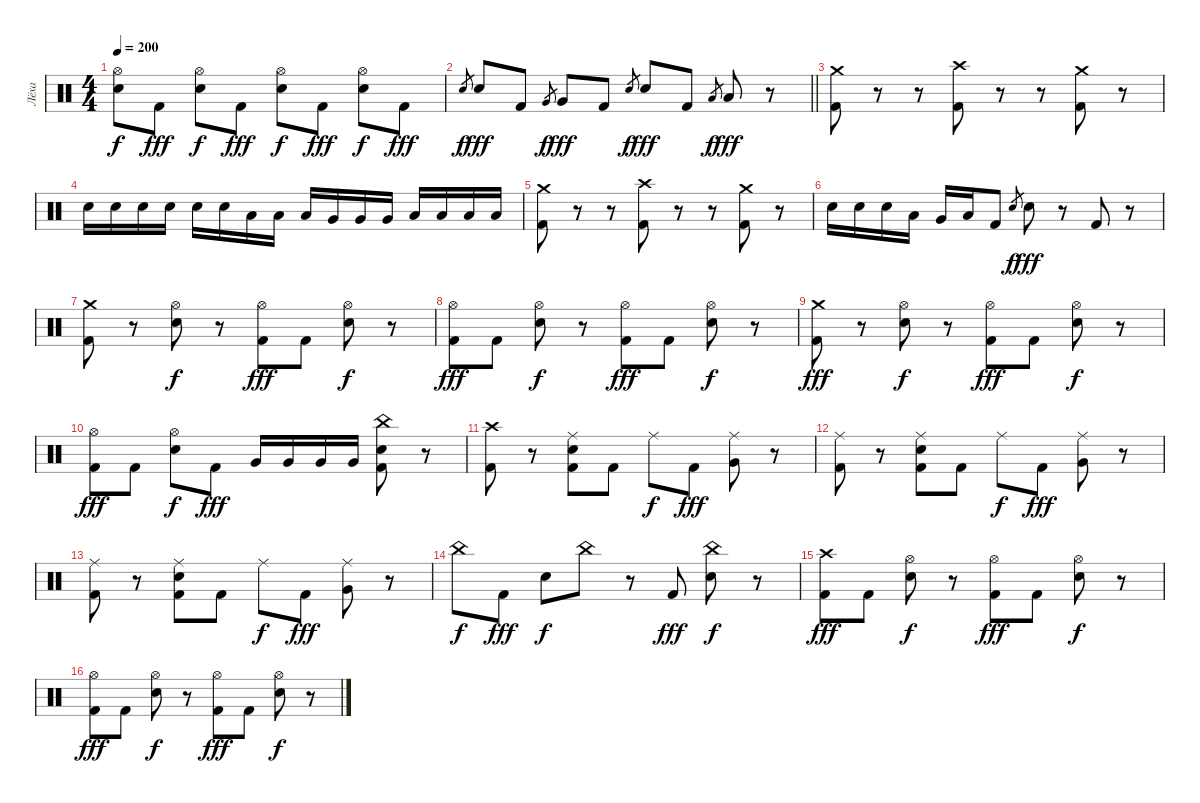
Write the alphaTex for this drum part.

\track ("Лёха" "Лёха") {instrument percussion}
\staff {score}
\articulation defaults
\ts (4 4)
\tempo 200
\clef neutral
\ks c
("Hi-Hat (open)" "Electric Snare (hit)").8{dy f} "Kick (hit) 2".8{dy fff} ("Hi-Hat (open)" "Electric Snare (hit)").8{dy f} "Kick (hit) 2".8{dy fff} ("Hi-Hat (open)" "Electric Snare (hit)").8{dy f} "Kick (hit) 2".8{dy fff} ("Hi-Hat (open)" "Electric Snare (hit)").8{dy f} "Kick (hit) 2".8{dy fff} |
\barLineRight lightlight "Electric Snare (hit)".8{gr dy f} "Electric Snare (hit)".8{dy fff} "Kick (hit) 2".8 "Very Low Tom (hit)".8{gr dy f} "Very Low Tom (hit)".8{dy fff} "Kick (hit) 2".8 "Electric Snare (hit)".8{gr dy f} "Electric Snare (hit)".8{dy fff} "Kick (hit) 2".8 "Low Floor Tom (hit)".8{gr dy f} "Low Floor Tom (hit)".8{dy fff}
r.8 |
\section ("" "")
("Crash medium (hit)" "Kick (hit) 2").8 r.8 r.8 ("Crash high (hit)" "Kick (hit) 2").8 r.8 r.8 ("Crash medium (hit)" "Kick (hit) 2").8 r.8 |
"Electric Snare (hit)".16 "Electric Snare (hit)".16 "Electric Snare (hit)".16 "Electric Snare (hit)".16 "Electric Snare (hit)".16 "Electric Snare (hit)".16 "Low Tom (hit)".16 "Low Tom (hit)".16 "Low Tom (hit)".16 "Very Low Tom (hit)".16 "Very Low Tom (hit)".16 "Very Low Tom (hit)".16 "Low Floor Tom (hit)".16 "Low Floor Tom (hit)".16 "Low Floor Tom (hit)".16 "Low Floor Tom (hit)".16 |
("Crash medium (hit)" "Kick (hit) 2").8 r.8 r.8 ("Crash high (hit)" "Kick (hit) 2").8 r.8 r.8 ("Crash medium (hit)" "Kick (hit) 2").8 r.8 |
"Electric Snare (hit)".16 "Electric Snare (hit)".16 "Electric Snare (hit)".16 "Low Tom (hit)".16 "Very Low Tom (hit)".16 "Low Floor Tom (hit)".16 "Kick (hit) 2".8 "Electric Snare (hit)".8{gr dy f} "Electric Snare (hit)".8{dy fff} r.8 "Kick (hit) 2".8 r.8 |
("Crash medium (hit)" "Kick (hit) 2").8 r.8 ("Hi-Hat (open)" "Electric Snare (hit)").8{dy f} r.8 ("Hi-Hat (open)" "Kick (hit) 2").8{dy fff} "Kick (hit) 2".8 ("Hi-Hat (open)" "Electric Snare (hit)").8{dy f} r.8 |
("Hi-Hat (open)" "Kick (hit) 2").8{dy fff} "Kick (hit) 2".8 ("Hi-Hat (open)" "Electric Snare (hit)").8{dy f} r.8 ("Hi-Hat (open)" "Kick (hit) 2").8{dy fff} "Kick (hit) 2".8 ("Hi-Hat (open)" "Electric Snare (hit)").8{dy f} r.8 |
("Crash medium (hit)" "Kick (hit) 2").8{dy fff} r.8 ("Hi-Hat (open)" "Electric Snare (hit)").8{dy f} r.8 ("Hi-Hat (open)" "Kick (hit) 2").8{dy fff} "Kick (hit) 2".8 ("Hi-Hat (open)" "Electric Snare (hit)").8{dy f} r.8 |
("Hi-Hat (open)" "Kick (hit) 2").8{dy fff} "Kick (hit) 2".8 ("Hi-Hat (open)" "Electric Snare (hit)").8{dy f} "Kick (hit) 2".8{dy fff} "Very Low Tom (hit)".16 "Very Low Tom (hit)".16 "Very Low Tom (hit)".16 "Very Low Tom (hit)".16 ("China (hit)" "Electric Snare (hit)" "Kick (hit) 2").8 r.8 |
("Crash high (hit)" "Kick (hit) 2").8 r.8 ("Ride (middle)" "Electric Snare (hit)" "Kick (hit) 2").8 "Kick (hit) 2".8 "Ride (middle)".8{dy f} "Kick (hit) 2".8{dy fff} ("Ride (middle)" "Very Low Tom (hit)").8 r.8 |
("Ride (middle)" "Kick (hit) 2").8 r.8 ("Ride (middle)" "Electric Snare (hit)" "Kick (hit) 2").8 "Kick (hit) 2".8 "Ride (middle)".8{dy f} "Kick (hit) 2".8{dy fff} ("Ride (middle)" "Very Low Tom (hit)").8 r.8 |
("Ride (middle)" "Kick (hit) 2").8 r.8 ("Ride (middle)" "Electric Snare (hit)" "Kick (hit) 2").8 "Kick (hit) 2".8 "Ride (middle)".8{dy f} "Kick (hit) 2".8{dy fff} ("Ride (middle)" "Very Low Tom (hit)").8 r.8 |
"China (hit)".8{dy f} "Kick (hit) 2".8{dy fff} "Electric Snare (hit)".8{dy f} "China (hit)".8 r.8 "Kick (hit) 2".8{dy fff} ("China (hit)" "Electric Snare (hit)").8{dy f} r.8 |
("Crash high (hit)" "Kick (hit) 2").8{dy fff} "Kick (hit) 2".8 ("Hi-Hat (open)" "Electric Snare (hit)").8{dy f} r.8 ("Hi-Hat (open)" "Kick (hit) 2").8{dy fff} "Kick (hit) 2".8 ("Hi-Hat (open)" "Electric Snare (hit)").8{dy f} r.8 |
("Hi-Hat (open)" "Kick (hit) 2").8{dy fff} "Kick (hit) 2".8 ("Hi-Hat (open)" "Electric Snare (hit)").8{dy f} r.8 ("Hi-Hat (open)" "Kick (hit) 2").8{dy fff} "Kick (hit) 2".8 ("Hi-Hat (open)" "Electric Snare (hit)").8{dy f} r.8
